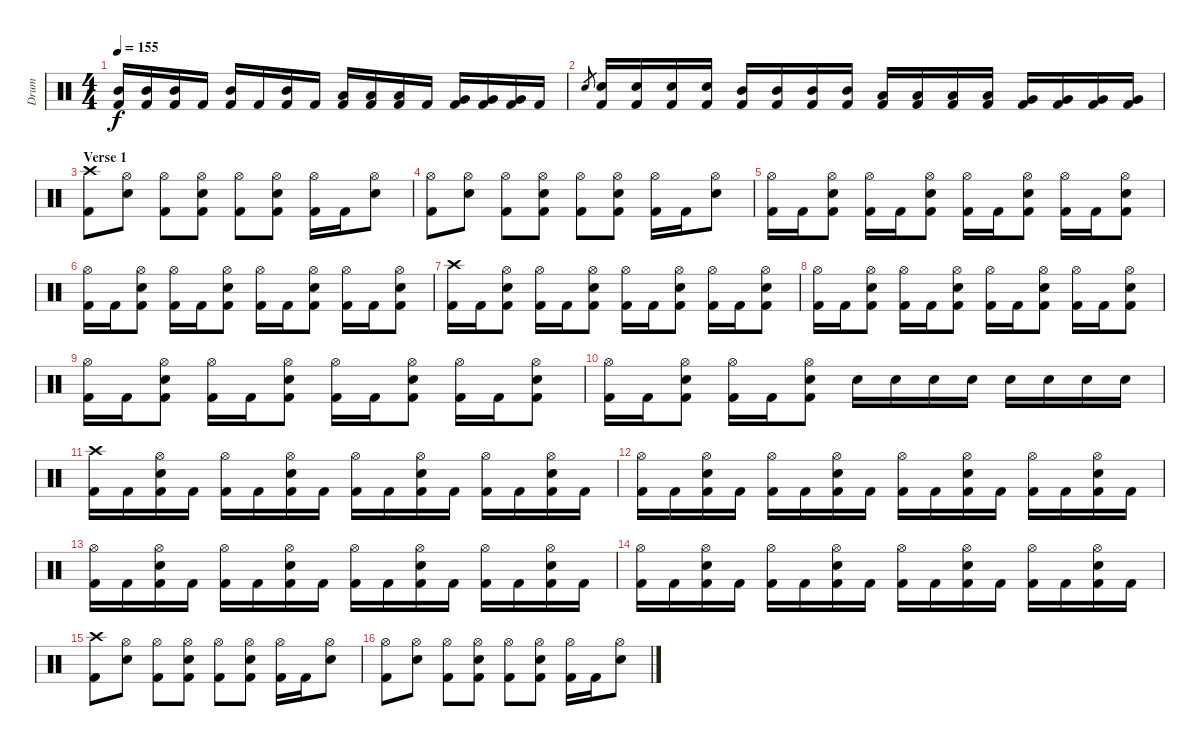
\track ("Drum" "Drum") {instrument percussion}
\staff {score}
\articulation defaults
\ts (4 4)
\tempo 155
\clef neutral
\ks c
("Mid Tom (hit)" "Kick (hit) 2").16{dy f} ("Mid Tom (hit)" "Kick (hit) 2").16 ("Mid Tom (hit)" "Kick (hit) 2").16 "Kick (hit) 2".16 ("Mid Tom (hit)" "Kick (hit) 2").16 "Kick (hit) 2".16 ("Mid Tom (hit)" "Kick (hit) 2").16 "Kick (hit) 2".16 ("Low Tom (hit)" "Kick (hit) 2").16 ("Low Tom (hit)" "Kick (hit) 2").16 ("Low Tom (hit)" "Kick (hit) 2").16 "Kick (hit) 2".16 ("Very Low Tom (hit)" "Kick (hit) 2").16 ("Very Low Tom (hit)" "Kick (hit) 2").16 ("Very Low Tom (hit)" "Kick (hit) 2").16 "Kick (hit) 2".16 |
"Electric Snare (hit)".8{gr} ("Electric Snare (hit)" "Kick (hit) 2").16 ("Electric Snare (hit)" "Kick (hit) 2").16 ("Electric Snare (hit)" "Kick (hit) 2").16 ("Electric Snare (hit)" "Kick (hit) 2").16 ("Mid Tom (hit)" "Kick (hit) 2").16 ("Mid Tom (hit)" "Kick (hit) 2").16 ("Mid Tom (hit)" "Kick (hit) 2").16 ("Mid Tom (hit)" "Kick (hit) 2").16 ("Low Tom (hit)" "Kick (hit) 2").16 ("Low Tom (hit)" "Kick (hit) 2").16 ("Low Tom (hit)" "Kick (hit) 2").16 ("Low Tom (hit)" "Kick (hit) 2").16 ("Very Low Tom (hit)" "Kick (hit) 2").16 ("Very Low Tom (hit)" "Kick (hit) 2").16 ("Very Low Tom (hit)" "Kick (hit) 2").16 ("Very Low Tom (hit)" "Kick (hit) 2").16 |
\section ("" "Verse 1")
("Crash high (hit)" "Kick (hit) 2").8 ("Hi-Hat (open)" "Electric Snare (hit)").8 ("Hi-Hat (open)" "Kick (hit) 2").8 ("Hi-Hat (open)" "Electric Snare (hit)" "Kick (hit) 2").8 ("Hi-Hat (open)" "Kick (hit) 2").8 ("Hi-Hat (open)" "Electric Snare (hit)" "Kick (hit) 2").8 ("Hi-Hat (open)" "Kick (hit) 2").16 "Kick (hit) 2".16 ("Hi-Hat (open)" "Electric Snare (hit)").8 |
("Hi-Hat (open)" "Kick (hit) 2").8 ("Hi-Hat (open)" "Electric Snare (hit)").8 ("Hi-Hat (open)" "Kick (hit) 2").8 ("Hi-Hat (open)" "Electric Snare (hit)" "Kick (hit) 2").8 ("Hi-Hat (open)" "Kick (hit) 2").8 ("Hi-Hat (open)" "Electric Snare (hit)" "Kick (hit) 2").8 ("Hi-Hat (open)" "Kick (hit) 2").16 "Kick (hit) 2".16 ("Hi-Hat (open)" "Electric Snare (hit)").8 |
("Hi-Hat (open)" "Kick (hit) 2").16 "Kick (hit) 2".16 ("Hi-Hat (open)" "Electric Snare (hit)" "Kick (hit) 2").8 ("Hi-Hat (open)" "Kick (hit) 2").16 "Kick (hit) 2".16 ("Hi-Hat (open)" "Electric Snare (hit)" "Kick (hit) 2").8 ("Hi-Hat (open)" "Kick (hit) 2").16 "Kick (hit) 2".16 ("Hi-Hat (open)" "Electric Snare (hit)" "Kick (hit) 2").8 ("Hi-Hat (open)" "Kick (hit) 2").16 "Kick (hit) 2".16 ("Hi-Hat (open)" "Electric Snare (hit)" "Kick (hit) 2").8 |
("Hi-Hat (open)" "Kick (hit) 2").16 "Kick (hit) 2".16 ("Hi-Hat (open)" "Electric Snare (hit)" "Kick (hit) 2").8 ("Hi-Hat (open)" "Kick (hit) 2").16 "Kick (hit) 2".16 ("Hi-Hat (open)" "Electric Snare (hit)" "Kick (hit) 2").8 ("Hi-Hat (open)" "Kick (hit) 2").16 "Kick (hit) 2".16 ("Hi-Hat (open)" "Electric Snare (hit)" "Kick (hit) 2").8 ("Hi-Hat (open)" "Kick (hit) 2").16 "Kick (hit) 2".16 ("Hi-Hat (open)" "Electric Snare (hit)" "Kick (hit) 2").8 |
("Crash high (hit)" "Kick (hit) 2").16 "Kick (hit) 2".16 ("Hi-Hat (open)" "Electric Snare (hit)" "Kick (hit) 2").8 ("Hi-Hat (open)" "Kick (hit) 2").16 "Kick (hit) 2".16 ("Hi-Hat (open)" "Electric Snare (hit)" "Kick (hit) 2").8 ("Hi-Hat (open)" "Kick (hit) 2").16 "Kick (hit) 2".16 ("Hi-Hat (open)" "Electric Snare (hit)" "Kick (hit) 2").8 ("Hi-Hat (open)" "Kick (hit) 2").16 "Kick (hit) 2".16 ("Hi-Hat (open)" "Electric Snare (hit)" "Kick (hit) 2").8 |
("Hi-Hat (open)" "Kick (hit) 2").16 "Kick (hit) 2".16 ("Hi-Hat (open)" "Electric Snare (hit)" "Kick (hit) 2").8 ("Hi-Hat (open)" "Kick (hit) 2").16 "Kick (hit) 2".16 ("Hi-Hat (open)" "Electric Snare (hit)" "Kick (hit) 2").8 ("Hi-Hat (open)" "Kick (hit) 2").16 "Kick (hit) 2".16 ("Hi-Hat (open)" "Electric Snare (hit)" "Kick (hit) 2").8 ("Hi-Hat (open)" "Kick (hit) 2").16 "Kick (hit) 2".16 ("Hi-Hat (open)" "Electric Snare (hit)" "Kick (hit) 2").8 |
("Hi-Hat (open)" "Kick (hit) 2").16 "Kick (hit) 2".16 ("Hi-Hat (open)" "Electric Snare (hit)" "Kick (hit) 2").8 ("Hi-Hat (open)" "Kick (hit) 2").16 "Kick (hit) 2".16 ("Hi-Hat (open)" "Electric Snare (hit)" "Kick (hit) 2").8 ("Hi-Hat (open)" "Kick (hit) 2").16 "Kick (hit) 2".16 ("Hi-Hat (open)" "Electric Snare (hit)" "Kick (hit) 2").8 ("Hi-Hat (open)" "Kick (hit) 2").16 "Kick (hit) 2".16 ("Hi-Hat (open)" "Electric Snare (hit)" "Kick (hit) 2").8 |
("Hi-Hat (open)" "Kick (hit) 2").16 "Kick (hit) 2".16 ("Hi-Hat (open)" "Electric Snare (hit)" "Kick (hit) 2").8 ("Hi-Hat (open)" "Kick (hit) 2").16 "Kick (hit) 2".16 ("Hi-Hat (open)" "Electric Snare (hit)" "Kick (hit) 2").8 "Electric Snare (hit)".16 "Electric Snare (hit)".16 "Electric Snare (hit)".16 "Electric Snare (hit)".16 "Electric Snare (hit)".16 "Electric Snare (hit)".16 "Electric Snare (hit)".16 "Electric Snare (hit)".16 |
("Crash high (hit)" "Kick (hit) 2").16 "Kick (hit) 2".16 ("Hi-Hat (open)" "Electric Snare (hit)" "Kick (hit) 2").16 "Kick (hit) 2".16 ("Hi-Hat (open)" "Kick (hit) 2").16 "Kick (hit) 2".16 ("Hi-Hat (open)" "Electric Snare (hit)" "Kick (hit) 2").16 "Kick (hit) 2".16 ("Hi-Hat (open)" "Kick (hit) 2").16 "Kick (hit) 2".16 ("Hi-Hat (open)" "Electric Snare (hit)" "Kick (hit) 2").16 "Kick (hit) 2".16 ("Hi-Hat (open)" "Kick (hit) 2").16 "Kick (hit) 2".16 ("Hi-Hat (open)" "Electric Snare (hit)" "Kick (hit) 2").16 "Kick (hit) 2".16 |
("Hi-Hat (open)" "Kick (hit) 2").16 "Kick (hit) 2".16 ("Hi-Hat (open)" "Electric Snare (hit)" "Kick (hit) 2").16 "Kick (hit) 2".16 ("Hi-Hat (open)" "Kick (hit) 2").16 "Kick (hit) 2".16 ("Hi-Hat (open)" "Electric Snare (hit)" "Kick (hit) 2").16 "Kick (hit) 2".16 ("Hi-Hat (open)" "Kick (hit) 2").16 "Kick (hit) 2".16 ("Hi-Hat (open)" "Electric Snare (hit)" "Kick (hit) 2").16 "Kick (hit) 2".16 ("Hi-Hat (open)" "Kick (hit) 2").16 "Kick (hit) 2".16 ("Hi-Hat (open)" "Electric Snare (hit)" "Kick (hit) 2").16 "Kick (hit) 2".16 |
("Hi-Hat (open)" "Kick (hit) 2").16 "Kick (hit) 2".16 ("Hi-Hat (open)" "Electric Snare (hit)" "Kick (hit) 2").16 "Kick (hit) 2".16 ("Hi-Hat (open)" "Kick (hit) 2").16 "Kick (hit) 2".16 ("Hi-Hat (open)" "Electric Snare (hit)" "Kick (hit) 2").16 "Kick (hit) 2".16 ("Hi-Hat (open)" "Kick (hit) 2").16 "Kick (hit) 2".16 ("Hi-Hat (open)" "Electric Snare (hit)" "Kick (hit) 2").16 "Kick (hit) 2".16 ("Hi-Hat (open)" "Kick (hit) 2").16 "Kick (hit) 2".16 ("Hi-Hat (open)" "Electric Snare (hit)" "Kick (hit) 2").16 "Kick (hit) 2".16 |
("Hi-Hat (open)" "Kick (hit) 2").16 "Kick (hit) 2".16 ("Hi-Hat (open)" "Electric Snare (hit)" "Kick (hit) 2").16 "Kick (hit) 2".16 ("Hi-Hat (open)" "Kick (hit) 2").16 "Kick (hit) 2".16 ("Hi-Hat (open)" "Electric Snare (hit)" "Kick (hit) 2").16 "Kick (hit) 2".16 ("Hi-Hat (open)" "Kick (hit) 2").16 "Kick (hit) 2".16 ("Hi-Hat (open)" "Electric Snare (hit)" "Kick (hit) 2").16 "Kick (hit) 2".16 ("Hi-Hat (open)" "Kick (hit) 2").16 "Kick (hit) 2".16 ("Hi-Hat (open)" "Electric Snare (hit)" "Kick (hit) 2").16 "Kick (hit) 2".16 |
("Crash high (hit)" "Kick (hit) 2").8 ("Hi-Hat (open)" "Electric Snare (hit)").8 ("Hi-Hat (open)" "Kick (hit) 2").8 ("Hi-Hat (open)" "Electric Snare (hit)" "Kick (hit) 2").8 ("Hi-Hat (open)" "Kick (hit) 2").8 ("Hi-Hat (open)" "Electric Snare (hit)" "Kick (hit) 2").8 ("Hi-Hat (open)" "Kick (hit) 2").16 "Kick (hit) 2".16 ("Hi-Hat (open)" "Electric Snare (hit)").8 |
("Hi-Hat (open)" "Kick (hit) 2").8 ("Hi-Hat (open)" "Electric Snare (hit)").8 ("Hi-Hat (open)" "Kick (hit) 2").8 ("Hi-Hat (open)" "Electric Snare (hit)" "Kick (hit) 2").8 ("Hi-Hat (open)" "Kick (hit) 2").8 ("Hi-Hat (open)" "Electric Snare (hit)" "Kick (hit) 2").8 ("Hi-Hat (open)" "Kick (hit) 2").16 "Kick (hit) 2".16 ("Hi-Hat (open)" "Electric Snare (hit)").8
